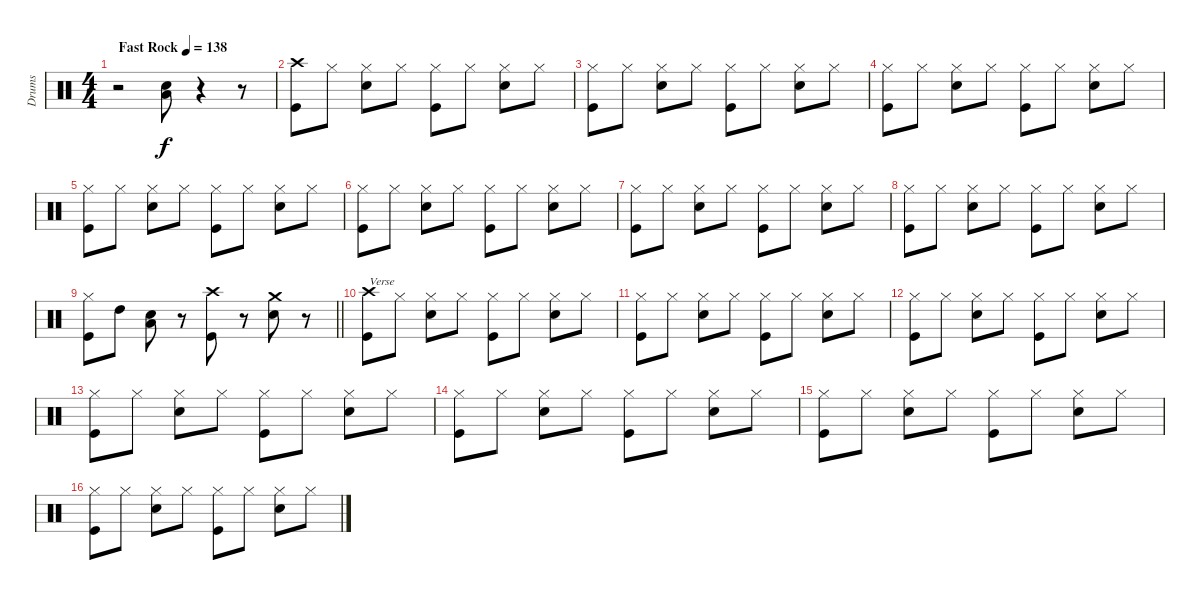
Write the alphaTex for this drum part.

\track ("Drums" "Drums") {instrument percussion}
\staff {score}
\articulation defaults
\ts (4 4)
\tempo (138 "Fast Rock")
\clef neutral
\ks c
r.2{dy f} ("Electric Snare (hit)" "Low Tom (hit)").8 r.4 r.8 |
("Kick (hit)" "Crash high (hit)").8 "Hi-Hat (closed)".8 ("Electric Snare (hit)" "Hi-Hat (closed)").8 "Hi-Hat (closed)".8 ("Kick (hit)" "Hi-Hat (closed)").8 "Hi-Hat (closed)".8 ("Electric Snare (hit)" "Hi-Hat (closed)").8 "Hi-Hat (closed)".8 |
("Kick (hit)" "Hi-Hat (closed)").8 "Hi-Hat (closed)".8 ("Electric Snare (hit)" "Hi-Hat (closed)").8 "Hi-Hat (closed)".8 ("Kick (hit)" "Hi-Hat (closed)").8 "Hi-Hat (closed)".8 ("Electric Snare (hit)" "Hi-Hat (closed)").8 "Hi-Hat (closed)".8 |
("Kick (hit)" "Hi-Hat (closed)").8 "Hi-Hat (closed)".8 ("Electric Snare (hit)" "Hi-Hat (closed)").8 "Hi-Hat (closed)".8 ("Kick (hit)" "Hi-Hat (closed)").8 "Hi-Hat (closed)".8 ("Electric Snare (hit)" "Hi-Hat (closed)").8 "Hi-Hat (closed)".8 |
("Kick (hit)" "Hi-Hat (closed)").8 "Hi-Hat (closed)".8 ("Electric Snare (hit)" "Hi-Hat (closed)").8 "Hi-Hat (closed)".8 ("Kick (hit)" "Hi-Hat (closed)").8 "Hi-Hat (closed)".8 ("Electric Snare (hit)" "Hi-Hat (closed)").8 "Hi-Hat (closed)".8 |
("Kick (hit)" "Hi-Hat (closed)").8 "Hi-Hat (closed)".8 ("Electric Snare (hit)" "Hi-Hat (closed)").8 "Hi-Hat (closed)".8 ("Kick (hit)" "Hi-Hat (closed)").8 "Hi-Hat (closed)".8 ("Electric Snare (hit)" "Hi-Hat (closed)").8 "Hi-Hat (closed)".8 |
("Kick (hit)" "Hi-Hat (closed)").8 "Hi-Hat (closed)".8 ("Electric Snare (hit)" "Hi-Hat (closed)").8 "Hi-Hat (closed)".8 ("Kick (hit)" "Hi-Hat (closed)").8 "Hi-Hat (closed)".8 ("Electric Snare (hit)" "Hi-Hat (closed)").8 "Hi-Hat (closed)".8 |
("Kick (hit)" "Hi-Hat (closed)").8 "Hi-Hat (closed)".8 ("Electric Snare (hit)" "Hi-Hat (closed)").8 "Hi-Hat (closed)".8 ("Kick (hit)" "Hi-Hat (closed)").8 "Hi-Hat (closed)".8 ("Electric Snare (hit)" "Hi-Hat (closed)").8 "Hi-Hat (closed)".8 |
\barLineRight lightlight
("Kick (hit)" "Hi-Hat (closed)").8 "High Tom (hit)".8 ("Electric Snare (hit)" "Low Tom (hit)").8 r.8 ("Kick (hit)" "Crash high (hit)").8 r.8 ("Electric Snare (hit)" "Crash medium (hit)").8 r.8 |
("Kick (hit)" "Crash high (hit)").8{txt "Verse"} "Hi-Hat (closed)".8 ("Electric Snare (hit)" "Hi-Hat (closed)").8 "Hi-Hat (closed)".8 ("Kick (hit)" "Hi-Hat (closed)").8 "Hi-Hat (closed)".8 ("Electric Snare (hit)" "Hi-Hat (closed)").8 "Hi-Hat (closed)".8 |
("Kick (hit)" "Hi-Hat (closed)").8 "Hi-Hat (closed)".8 ("Electric Snare (hit)" "Hi-Hat (closed)").8 "Hi-Hat (closed)".8 ("Kick (hit)" "Hi-Hat (closed)").8 "Hi-Hat (closed)".8 ("Electric Snare (hit)" "Hi-Hat (closed)").8 "Hi-Hat (closed)".8 |
("Kick (hit)" "Hi-Hat (closed)").8 "Hi-Hat (closed)".8 ("Electric Snare (hit)" "Hi-Hat (closed)").8 "Hi-Hat (closed)".8 ("Kick (hit)" "Hi-Hat (closed)").8 "Hi-Hat (closed)".8 ("Electric Snare (hit)" "Hi-Hat (closed)").8 "Hi-Hat (closed)".8 |
("Kick (hit)" "Hi-Hat (closed)").8 "Hi-Hat (closed)".8 ("Electric Snare (hit)" "Hi-Hat (closed)").8 "Hi-Hat (closed)".8 ("Kick (hit)" "Hi-Hat (closed)").8 "Hi-Hat (closed)".8 ("Electric Snare (hit)" "Hi-Hat (closed)").8 "Hi-Hat (closed)".8 |
("Kick (hit)" "Hi-Hat (closed)").8 "Hi-Hat (closed)".8 ("Electric Snare (hit)" "Hi-Hat (closed)").8 "Hi-Hat (closed)".8 ("Kick (hit)" "Hi-Hat (closed)").8 "Hi-Hat (closed)".8 ("Electric Snare (hit)" "Hi-Hat (closed)").8 "Hi-Hat (closed)".8 |
("Kick (hit)" "Hi-Hat (closed)").8 "Hi-Hat (closed)".8 ("Electric Snare (hit)" "Hi-Hat (closed)").8 "Hi-Hat (closed)".8 ("Kick (hit)" "Hi-Hat (closed)").8 "Hi-Hat (closed)".8 ("Electric Snare (hit)" "Hi-Hat (closed)").8 "Hi-Hat (closed)".8 |
("Kick (hit)" "Hi-Hat (closed)").8 "Hi-Hat (closed)".8 ("Electric Snare (hit)" "Hi-Hat (closed)").8 "Hi-Hat (closed)".8 ("Kick (hit)" "Hi-Hat (closed)").8 "Hi-Hat (closed)".8 ("Electric Snare (hit)" "Hi-Hat (closed)").8 "Hi-Hat (closed)".8
